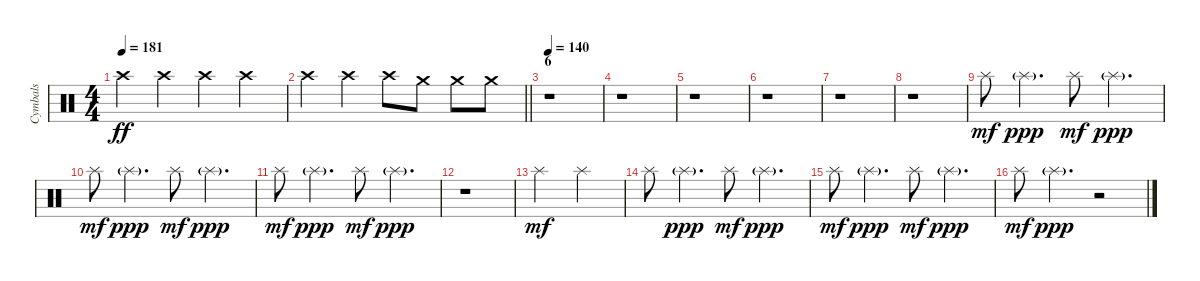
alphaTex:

\track ("Cymbals" "Cymbals") {instrument percussion}
\staff {score}
\articulation defaults
\ts (4 4)
\tempo 181
\clef neutral
\ks c "Crash high (hit)".4{dy ff} "Crash high (hit)".4 "Crash high (hit)".4 "Crash high (hit)".4
|
\barLineRight lightlight "Crash high (hit)".4 "Crash high (hit)".4 "Crash high (hit)".8 "Crash medium (hit)".8 "Crash medium (hit)".8 "Crash medium (hit)".8
|
\section ("" "6")
\tempo 140
r.1 |
r.1 |
r.1 |
r.1 |
r.1 |
r.1 |
"Splash (hit)".8{dy mf} "Splash (hit)"{g}.4{d dy ppp} "Splash (hit)".8{dy mf} "Splash (hit)"{g}.4{d dy ppp} |
"Splash (hit)".8{dy mf} "Splash (hit)"{g}.4{d dy ppp} "Splash (hit)".8{dy mf} "Splash (hit)"{g}.4{d dy ppp} |
"Splash (hit)".8{dy mf} "Splash (hit)"{g}.4{d dy ppp} "Splash (hit)".8{dy mf} "Splash (hit)"{g}.4{d dy ppp} |
r.1 |
"Splash (hit)".2{dy mf} "Splash (hit)".2 |
"Splash (hit)".8 "Splash (hit)"{g}.4{d dy ppp} "Splash (hit)".8{dy mf} "Splash (hit)"{g}.4{d dy ppp} |
"Splash (hit)".8{dy mf} "Splash (hit)"{g}.4{d dy ppp} "Splash (hit)".8{dy mf} "Splash (hit)"{g}.4{d dy ppp} |
"Splash (hit)".8{dy mf} "Splash (hit)"{g}.4{d dy ppp} r.2
